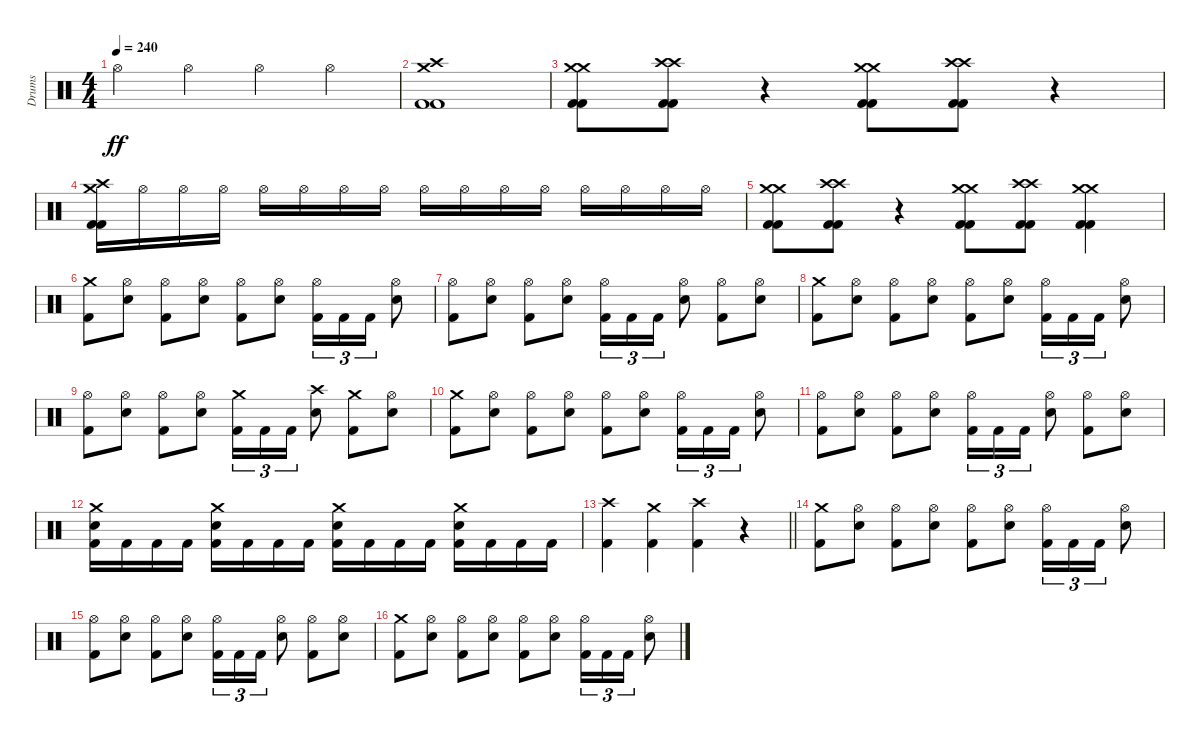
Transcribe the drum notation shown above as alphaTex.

\track ("Drums" "Drums") {instrument percussion}
\staff {score}
\articulation defaults
\ts (4 4)
\tempo 240
\clef neutral
\ks c "Hi-Hat (open)".4{dy ff} "Hi-Hat (open)".4 "Hi-Hat (open)".4 "Hi-Hat (open)".4
|
("Crash high (hit)" "Crash medium (hit)" "Kick (hit) 2" "Kick (hit) 2").1 |
("Crash medium (hit)" "Crash medium (hit)" "Kick (hit) 2" "Kick (hit) 2").8 ("Crash high (hit)" "Crash high (hit)" "Kick (hit) 2" "Kick (hit) 2").8 r.4 ("Crash medium (hit)" "Crash medium (hit)" "Kick (hit) 2" "Kick (hit) 2").8 ("Crash high (hit)" "Crash high (hit)" "Kick (hit) 2" "Kick (hit) 2").8 r.4 |
("Crash high (hit)" "Crash medium (hit)" "Kick (hit) 2" "Kick (hit) 2").16 "Hi-Hat (open)".16 "Hi-Hat (open)".16 "Hi-Hat (open)".16 "Hi-Hat (open)".16 "Hi-Hat (open)".16 "Hi-Hat (open)".16 "Hi-Hat (open)".16 "Hi-Hat (open)".16 "Hi-Hat (open)".16 "Hi-Hat (open)".16 "Hi-Hat (open)".16 "Hi-Hat (open)".16 "Hi-Hat (open)".16 "Hi-Hat (open)".16 "Hi-Hat (open)".16 |
("Crash medium (hit)" "Crash medium (hit)" "Kick (hit) 2" "Kick (hit) 2").8 ("Crash high (hit)" "Crash high (hit)" "Kick (hit) 2" "Kick (hit) 2").8 r.4 ("Crash medium (hit)" "Crash medium (hit)" "Kick (hit) 2" "Kick (hit) 2").8 ("Crash high (hit)" "Crash high (hit)" "Kick (hit) 2" "Kick (hit) 2").8 ("Crash medium (hit)" "Crash medium (hit)" "Kick (hit) 2" "Kick (hit) 2").4 |
("Crash medium (hit)" "Kick (hit) 2").8 ("Hi-Hat (open)" "Snare (hit) 2").8 ("Hi-Hat (open)" "Kick (hit) 2").8 ("Hi-Hat (open)" "Snare (hit) 2").8 ("Hi-Hat (open)" "Kick (hit) 2").8 ("Hi-Hat (open)" "Snare (hit) 2").8 ("Hi-Hat (open)" "Kick (hit) 2").16{tu (3 2)} "Kick (hit) 2".16{tu (3 2)} "Kick (hit) 2".16{tu (3 2)} ("Hi-Hat (open)" "Snare (hit) 2").8 |
("Hi-Hat (open)" "Kick (hit) 2").8 ("Hi-Hat (open)" "Snare (hit) 2").8 ("Hi-Hat (open)" "Kick (hit) 2").8 ("Hi-Hat (open)" "Snare (hit) 2").8 ("Hi-Hat (open)" "Kick (hit) 2").16{tu (3 2)} "Kick (hit) 2".16{tu (3 2)} "Kick (hit) 2".16{tu (3 2)} ("Hi-Hat (open)" "Snare (hit) 2").8 ("Hi-Hat (open)" "Kick (hit) 2").8 ("Hi-Hat (open)" "Snare (hit) 2").8 |
("Crash medium (hit)" "Kick (hit) 2").8 ("Hi-Hat (open)" "Snare (hit) 2").8 ("Hi-Hat (open)" "Kick (hit) 2").8 ("Hi-Hat (open)" "Snare (hit) 2").8 ("Hi-Hat (open)" "Kick (hit) 2").8 ("Hi-Hat (open)" "Snare (hit) 2").8 ("Hi-Hat (open)" "Kick (hit) 2").16{tu (3 2)} "Kick (hit) 2".16{tu (3 2)} "Kick (hit) 2".16{tu (3 2)} ("Hi-Hat (open)" "Snare (hit) 2").8 |
("Hi-Hat (open)" "Kick (hit) 2").8 ("Hi-Hat (open)" "Snare (hit) 2").8 ("Hi-Hat (open)" "Kick (hit) 2").8 ("Hi-Hat (open)" "Snare (hit) 2").8 ("Crash medium (hit)" "Kick (hit) 2").16{tu (3 2)} "Kick (hit) 2".16{tu (3 2)} "Kick (hit) 2".16{tu (3 2)} ("Crash high (hit)" "Snare (hit) 2").8 ("Crash medium (hit)" "Kick (hit) 2").8 ("Hi-Hat (open)" "Snare (hit) 2").8 |
("Crash medium (hit)" "Kick (hit) 2").8 ("Hi-Hat (open)" "Snare (hit) 2").8 ("Hi-Hat (open)" "Kick (hit) 2").8 ("Hi-Hat (open)" "Snare (hit) 2").8 ("Hi-Hat (open)" "Kick (hit) 2").8 ("Hi-Hat (open)" "Snare (hit) 2").8 ("Hi-Hat (open)" "Kick (hit) 2").16{tu (3 2)} "Kick (hit) 2".16{tu (3 2)} "Kick (hit) 2".16{tu (3 2)} ("Hi-Hat (open)" "Snare (hit) 2").8 |
("Hi-Hat (open)" "Kick (hit) 2").8 ("Hi-Hat (open)" "Snare (hit) 2").8 ("Hi-Hat (open)" "Kick (hit) 2").8 ("Hi-Hat (open)" "Snare (hit) 2").8 ("Hi-Hat (open)" "Kick (hit) 2").16{tu (3 2)} "Kick (hit) 2".16{tu (3 2)} "Kick (hit) 2".16{tu (3 2)} ("Hi-Hat (open)" "Snare (hit) 2").8 ("Hi-Hat (open)" "Kick (hit) 2").8 ("Hi-Hat (open)" "Snare (hit) 2").8 |
("Crash medium (hit)" "Snare (hit) 2" "Kick (hit) 2").16 "Kick (hit) 2".16 "Kick (hit) 2".16 "Kick (hit) 2".16 ("Crash medium (hit)" "Snare (hit) 2" "Kick (hit) 2").16 "Kick (hit) 2".16 "Kick (hit) 2".16 "Kick (hit) 2".16 ("Crash medium (hit)" "Snare (hit) 2" "Kick (hit) 2").16 "Kick (hit) 2".16 "Kick (hit) 2".16 "Kick (hit) 2".16 ("Crash medium (hit)" "Snare (hit) 2" "Kick (hit) 2").16 "Kick (hit) 2".16 "Kick (hit) 2".16 "Kick (hit) 2".16 |
\barLineRight lightlight
("Crash high (hit)" "Kick (hit) 2").4 ("Crash medium (hit)" "Kick (hit) 2").4 ("Crash high (hit)" "Kick (hit) 2").4 r.4 |
("Crash medium (hit)" "Kick (hit) 2").8 ("Hi-Hat (open)" "Snare (hit) 2").8 ("Hi-Hat (open)" "Kick (hit) 2").8 ("Hi-Hat (open)" "Snare (hit) 2").8 ("Hi-Hat (open)" "Kick (hit) 2").8 ("Hi-Hat (open)" "Snare (hit) 2").8 ("Hi-Hat (open)" "Kick (hit) 2").16{tu (3 2)} "Kick (hit) 2".16{tu (3 2)} "Kick (hit) 2".16{tu (3 2)} ("Hi-Hat (open)" "Snare (hit) 2").8 |
("Hi-Hat (open)" "Kick (hit) 2").8 ("Hi-Hat (open)" "Snare (hit) 2").8 ("Hi-Hat (open)" "Kick (hit) 2").8 ("Hi-Hat (open)" "Snare (hit) 2").8 ("Hi-Hat (open)" "Kick (hit) 2").16{tu (3 2)} "Kick (hit) 2".16{tu (3 2)} "Kick (hit) 2".16{tu (3 2)} ("Hi-Hat (open)" "Snare (hit) 2").8 ("Hi-Hat (open)" "Kick (hit) 2").8 ("Hi-Hat (open)" "Snare (hit) 2").8 |
("Crash medium (hit)" "Kick (hit) 2").8 ("Hi-Hat (open)" "Snare (hit) 2").8 ("Hi-Hat (open)" "Kick (hit) 2").8 ("Hi-Hat (open)" "Snare (hit) 2").8 ("Hi-Hat (open)" "Kick (hit) 2").8 ("Hi-Hat (open)" "Snare (hit) 2").8 ("Hi-Hat (open)" "Kick (hit) 2").16{tu (3 2)} "Kick (hit) 2".16{tu (3 2)} "Kick (hit) 2".16{tu (3 2)} ("Hi-Hat (open)" "Snare (hit) 2").8
